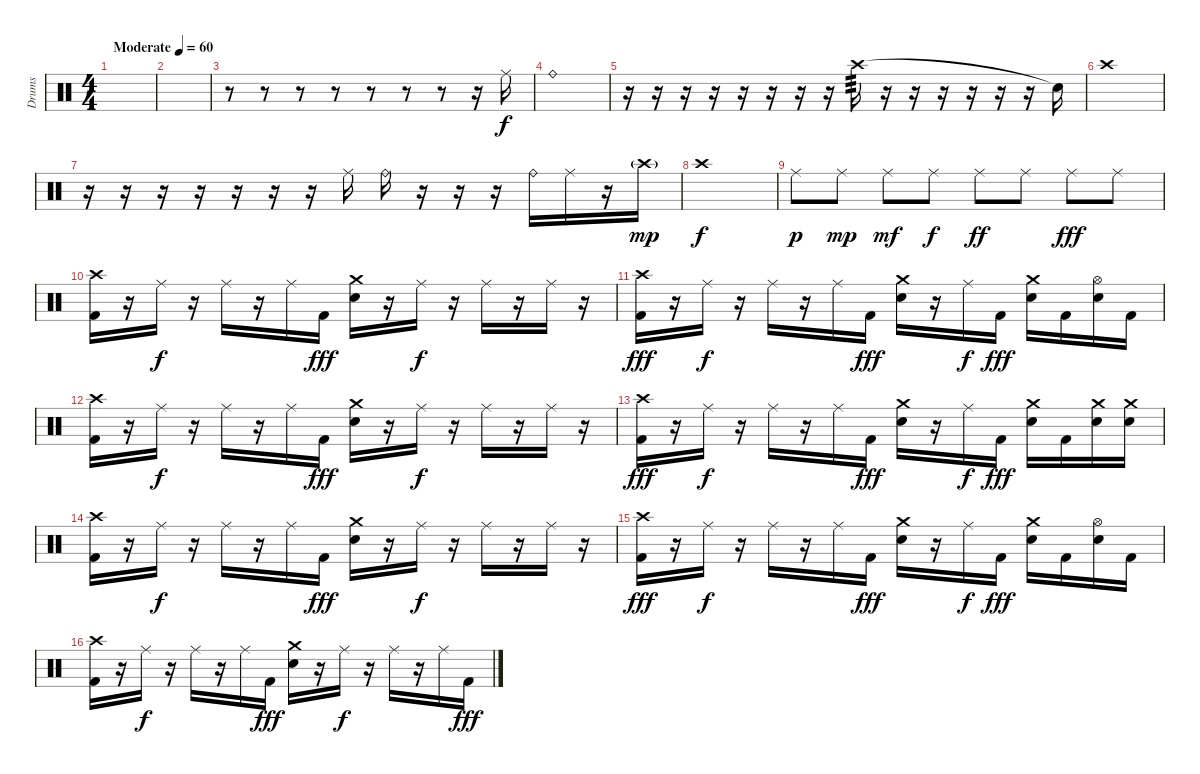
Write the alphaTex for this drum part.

\track ("Drums" "Drums") {instrument percussion}
\staff {score}
\articulation defaults
\ts (4 4)
\tempo (60 "Moderate")
\clef neutral
\ks c
|
|
r.8 r.8 r.8 r.8 r.8 r.8 r.8 r.16 "Ride (middle)".16 |
"Ride (bell)".1 |
r.16 r.16 r.16 r.16 r.16 r.16 r.16 r.16{volume 0} "Crash high (hit)".16{tp 3 volume 12} r.16 r.16 r.16 r.16 r.16 r.16 "Snare (hit)"{t}.16 |
"Crash high (hit)".1 |
r.16 r.16 r.16 r.16 r.16 r.16 r.16 "Ride (middle)".16 "Ride (bell)".16 r.16 r.16 r.16 "Ride (bell)".16 "Ride (middle)".16 r.16 "Crash high (hit)"{g}.16{dy mp} |
"Crash high (hit)".1{dy f} |
"Ride (middle)".8{dy p} "Ride (middle)".8{dy mp} "Ride (middle)".8{dy mf} "Ride (middle)".8{dy f} "Ride (middle)".8{dy ff} "Ride (middle)".8 "Ride (middle)".8{dy fff} "Ride (middle)".8 |
("Crash high (hit)" "Kick (hit) 2").16 r.16 "Ride (middle)".16{dy f} r.16 "Ride (middle)".16 r.16 "Ride (middle)".16 "Kick (hit) 2".16{dy fff} ("Crash medium (hit)" "Electric Snare (hit)").16 r.16 "Ride (middle)".16{dy f} r.16 "Ride (middle)".16 r.16 "Ride (middle)".16 r.16 |
("Crash high (hit)" "Kick (hit) 2").16{dy fff} r.16 "Ride (middle)".16{dy f} r.16 "Ride (middle)".16 r.16 "Ride (middle)".16 "Kick (hit) 2".16{dy fff} ("Crash medium (hit)" "Electric Snare (hit)").16 r.16 "Ride (middle)".16{dy f} "Kick (hit) 2".16{dy fff} ("Crash medium (hit)" "Electric Snare (hit)").16 "Kick (hit) 2".16 ("Hi-Hat (open)" "Electric Snare (hit)").16 "Kick (hit) 2".16 |
("Crash high (hit)" "Kick (hit) 2").16 r.16 "Ride (middle)".16{dy f} r.16 "Ride (middle)".16 r.16 "Ride (middle)".16 "Kick (hit) 2".16{dy fff} ("Crash medium (hit)" "Electric Snare (hit)").16 r.16 "Ride (middle)".16{dy f} r.16 "Ride (middle)".16 r.16 "Ride (middle)".16 r.16 |
("Crash high (hit)" "Kick (hit) 2").16{dy fff} r.16 "Ride (middle)".16{dy f} r.16 "Ride (middle)".16 r.16 "Ride (middle)".16 "Kick (hit) 2".16{dy fff} ("Crash medium (hit)" "Electric Snare (hit)").16 r.16 "Ride (middle)".16{dy f} "Kick (hit) 2".16{dy fff} ("Crash medium (hit)" "Electric Snare (hit)").16 "Kick (hit) 2".16 ("Crash medium (hit)" "Electric Snare (hit)").16 ("Crash medium (hit)" "Electric Snare (hit)").16 |
("Crash high (hit)" "Kick (hit) 2").16 r.16 "Ride (middle)".16{dy f} r.16 "Ride (middle)".16 r.16 "Ride (middle)".16 "Kick (hit) 2".16{dy fff} ("Crash medium (hit)" "Electric Snare (hit)").16 r.16 "Ride (middle)".16{dy f} r.16 "Ride (middle)".16 r.16 "Ride (middle)".16 r.16 |
("Crash high (hit)" "Kick (hit) 2").16{dy fff} r.16 "Ride (middle)".16{dy f} r.16 "Ride (middle)".16 r.16 "Ride (middle)".16 "Kick (hit) 2".16{dy fff} ("Crash medium (hit)" "Electric Snare (hit)").16 r.16 "Ride (middle)".16{dy f} "Kick (hit) 2".16{dy fff} ("Crash medium (hit)" "Electric Snare (hit)").16 "Kick (hit) 2".16 ("Hi-Hat (open)" "Electric Snare (hit)").16 "Kick (hit) 2".16 |
("Crash high (hit)" "Kick (hit) 2").16 r.16 "Ride (middle)".16{dy f} r.16 "Ride (middle)".16 r.16 "Ride (middle)".16 "Kick (hit) 2".16{dy fff} ("Crash medium (hit)" "Electric Snare (hit)").16 r.16 "Ride (middle)".16{dy f} r.16 "Ride (middle)".16 r.16 "Ride (middle)".16 "Kick (hit) 2".16{dy fff}
